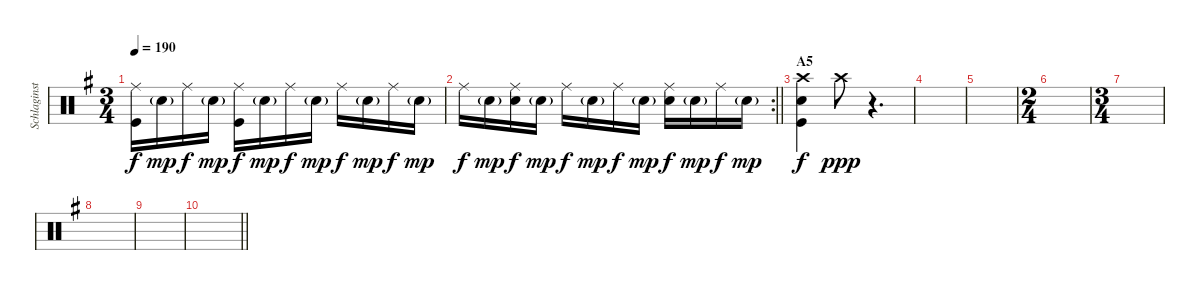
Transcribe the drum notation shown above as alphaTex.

\track ("Schlaginstrumente - Auswahl" "Schlaginst") {instrument percussion}
\staff {score}
\articulation defaults
\ts (3 4)
\tempo 190
\clef neutral
\ks eminor
("Ride (middle)" "Kick (hit)").16{dy f} "Electric Snare (hit)"{g}.16{dy mp} "Ride (middle)".16{dy f} "Electric Snare (hit)"{g}.16{dy mp} ("Ride (middle)" "Kick (hit)").16{dy f} "Electric Snare (hit)"{g}.16{dy mp} "Ride (middle)".16{dy f} "Electric Snare (hit)"{g}.16{dy mp} "Ride (middle)".16{dy f} "Electric Snare (hit)"{g}.16{dy mp} "Ride (middle)".16{dy f} "Electric Snare (hit)"{g}.16{dy mp} |
\rc 2
\barLineRight lightlight "Ride (middle)".16{dy f} "Electric Snare (hit)"{g}.16{dy mp}
("Ride (middle)" "Electric Snare (hit)").16{dy f} "Electric Snare (hit)"{g}.16{dy mp} "Ride (middle)".16{dy f} "Electric Snare (hit)"{g}.16{dy mp} "Ride (middle)".16{dy f} "Electric Snare (hit)"{g}.16{dy mp} ("Ride (middle)" "Electric Snare (hit)").16{dy f} "Electric Snare (hit)"{g}.16{dy mp} "Ride (middle)".16{dy f} "Electric Snare (hit)"{g}.16{dy mp} |
\section ("" "A5")
("Crash high (hit)" "Electric Snare (hit)" "Kick (hit)").4{dy f} "Crash high (hit)".8{dy ppp} r.4{d} |
|
|
\ts (2 4)
|
\ts (3 4)
|
|
|
\barLineRight lightlight
